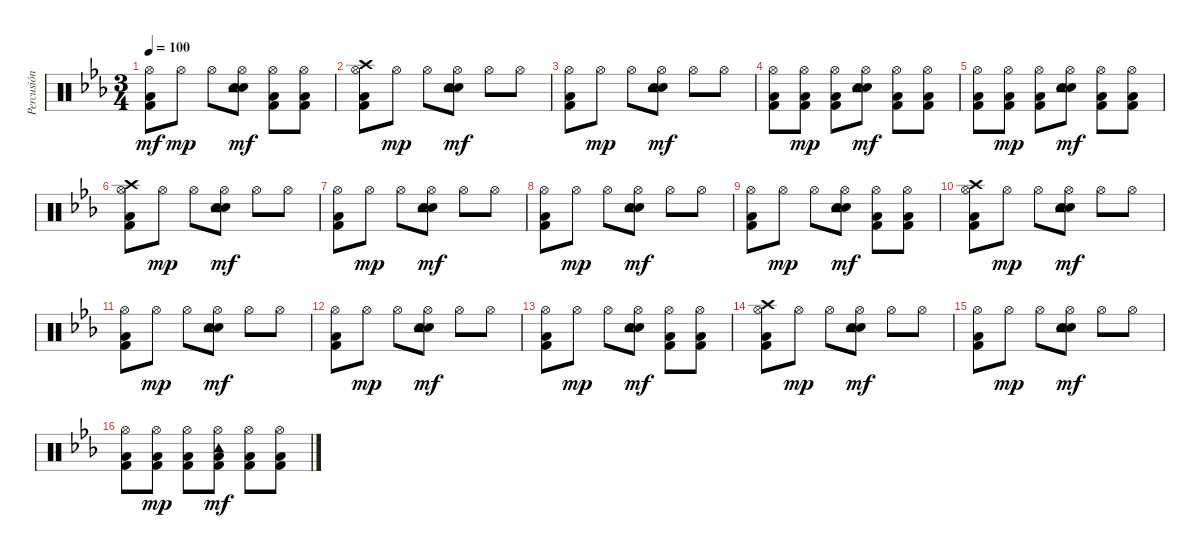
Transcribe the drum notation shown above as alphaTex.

\track ("Percusión" "Percusión") {instrument percussion}
\staff {score}
\articulation defaults
\ts (3 4)
\tempo 100
\clef neutral
\ks eb
("Hi-Hat (open)" "Low Floor Tom (hit)" "Kick (hit) 2").8{dy mf} "Hi-Hat (open)".8{dy mp} "Hi-Hat (open)".8 ("Hi-Hat (open)" "Electric Snare (hit)" "Snare (hit) 2" "Tambourine (hit)").8{dy mf} ("Hi-Hat (open)" "Low Floor Tom (hit)" "Kick (hit) 2").8 ("Hi-Hat (open)" "Low Floor Tom (hit)" "Kick (hit) 2").8 |
("Hi-Hat (open)" "Low Floor Tom (hit)" "Kick (hit) 2" "Crash high (hit)").8 "Hi-Hat (open)".8{dy mp} "Hi-Hat (open)".8 ("Hi-Hat (open)" "Electric Snare (hit)" "Snare (hit) 2" "Tambourine (hit)").8{dy mf} "Hi-Hat (open)".8 "Hi-Hat (open)".8 |
("Hi-Hat (open)" "Low Floor Tom (hit)" "Kick (hit) 2").8 "Hi-Hat (open)".8{dy mp} "Hi-Hat (open)".8 ("Hi-Hat (open)" "Electric Snare (hit)" "Snare (hit) 2" "Tambourine (hit)").8{dy mf} "Hi-Hat (open)".8 "Hi-Hat (open)".8 |
("Hi-Hat (open)" "Low Floor Tom (hit)" "Kick (hit) 2").8 ("Hi-Hat (open)" "Low Floor Tom (hit)" "Kick (hit) 2").8{dy mp} ("Hi-Hat (open)" "Low Floor Tom (hit)" "Kick (hit) 2").8 ("Hi-Hat (open)" "Electric Snare (hit)" "Snare (hit) 2" "Tambourine (hit)").8{dy mf} ("Hi-Hat (open)" "Low Floor Tom (hit)" "Kick (hit) 2").8 ("Hi-Hat (open)" "Low Floor Tom (hit)" "Kick (hit) 2").8 |
("Hi-Hat (open)" "Low Floor Tom (hit)" "Kick (hit) 2").8 ("Hi-Hat (open)" "Low Floor Tom (hit)" "Kick (hit) 2").8{dy mp} ("Hi-Hat (open)" "Low Floor Tom (hit)" "Kick (hit) 2").8 ("Hi-Hat (open)" "Electric Snare (hit)" "Snare (hit) 2" "Tambourine (hit)").8{dy mf} ("Hi-Hat (open)" "Low Floor Tom (hit)" "Kick (hit) 2").8 ("Hi-Hat (open)" "Low Floor Tom (hit)" "Kick (hit) 2").8 |
("Hi-Hat (open)" "Low Floor Tom (hit)" "Kick (hit) 2" "Crash high (hit)").8 "Hi-Hat (open)".8{dy mp} "Hi-Hat (open)".8 ("Hi-Hat (open)" "Electric Snare (hit)" "Snare (hit) 2" "Tambourine (hit)").8{dy mf} "Hi-Hat (open)".8 "Hi-Hat (open)".8 |
("Hi-Hat (open)" "Low Floor Tom (hit)" "Kick (hit) 2").8 "Hi-Hat (open)".8{dy mp} "Hi-Hat (open)".8 ("Hi-Hat (open)" "Electric Snare (hit)" "Snare (hit) 2" "Tambourine (hit)").8{dy mf} "Hi-Hat (open)".8 "Hi-Hat (open)".8 |
("Hi-Hat (open)" "Low Floor Tom (hit)" "Kick (hit) 2").8 "Hi-Hat (open)".8{dy mp} "Hi-Hat (open)".8 ("Hi-Hat (open)" "Electric Snare (hit)" "Snare (hit) 2" "Tambourine (hit)").8{dy mf} "Hi-Hat (open)".8 "Hi-Hat (open)".8 |
("Hi-Hat (open)" "Low Floor Tom (hit)" "Kick (hit) 2").8 "Hi-Hat (open)".8{dy mp} "Hi-Hat (open)".8 ("Hi-Hat (open)" "Electric Snare (hit)" "Snare (hit) 2" "Tambourine (hit)").8{dy mf} ("Hi-Hat (open)" "Low Floor Tom (hit)" "Kick (hit) 2").8 ("Hi-Hat (open)" "Low Floor Tom (hit)" "Kick (hit) 2").8 |
("Hi-Hat (open)" "Low Floor Tom (hit)" "Kick (hit) 2" "Crash high (hit)").8 "Hi-Hat (open)".8{dy mp} "Hi-Hat (open)".8 ("Hi-Hat (open)" "Electric Snare (hit)" "Snare (hit) 2" "Tambourine (hit)").8{dy mf} "Hi-Hat (open)".8 "Hi-Hat (open)".8 |
("Hi-Hat (open)" "Low Floor Tom (hit)" "Kick (hit) 2").8 "Hi-Hat (open)".8{dy mp} "Hi-Hat (open)".8 ("Hi-Hat (open)" "Electric Snare (hit)" "Snare (hit) 2" "Tambourine (hit)").8{dy mf} "Hi-Hat (open)".8 "Hi-Hat (open)".8 |
("Hi-Hat (open)" "Low Floor Tom (hit)" "Kick (hit) 2").8 "Hi-Hat (open)".8{dy mp} "Hi-Hat (open)".8 ("Hi-Hat (open)" "Electric Snare (hit)" "Snare (hit) 2" "Tambourine (hit)").8{dy mf} "Hi-Hat (open)".8 "Hi-Hat (open)".8 |
("Hi-Hat (open)" "Low Floor Tom (hit)" "Kick (hit) 2").8 "Hi-Hat (open)".8{dy mp} "Hi-Hat (open)".8 ("Hi-Hat (open)" "Electric Snare (hit)" "Snare (hit) 2" "Tambourine (hit)").8{dy mf} ("Hi-Hat (open)" "Low Floor Tom (hit)" "Kick (hit) 2").8 ("Hi-Hat (open)" "Low Floor Tom (hit)" "Kick (hit) 2").8 |
("Hi-Hat (open)" "Low Floor Tom (hit)" "Kick (hit) 2" "Crash high (hit)").8 "Hi-Hat (open)".8{dy mp} "Hi-Hat (open)".8 ("Hi-Hat (open)" "Electric Snare (hit)" "Snare (hit) 2" "Tambourine (hit)").8{dy mf} "Hi-Hat (open)".8 "Hi-Hat (open)".8 |
("Hi-Hat (open)" "Low Floor Tom (hit)" "Kick (hit) 2").8 "Hi-Hat (open)".8{dy mp} "Hi-Hat (open)".8 ("Hi-Hat (open)" "Electric Snare (hit)" "Snare (hit) 2" "Tambourine (hit)").8{dy mf} "Hi-Hat (open)".8 "Hi-Hat (open)".8 |
("Hi-Hat (open)" "Low Floor Tom (hit)" "Kick (hit) 2").8 ("Hi-Hat (open)" "Low Floor Tom (hit)" "Kick (hit) 2").8{dy mp} ("Hi-Hat (open)" "Low Floor Tom (hit)" "Kick (hit) 2").8 ("Hi-Hat (open)" "Low Floor Tom (hit)" "Kick (hit) 2" "Tambourine (hit)").8{dy mf} ("Hi-Hat (open)" "Low Floor Tom (hit)" "Kick (hit) 2").8 ("Hi-Hat (open)" "Low Floor Tom (hit)" "Kick (hit) 2").8
